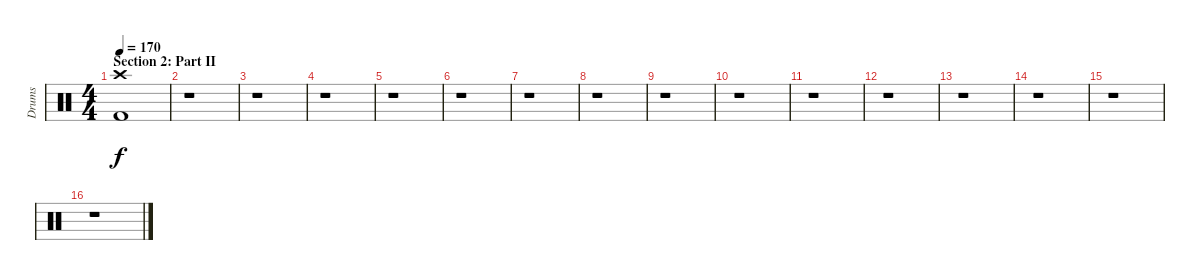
\track ("Drums" "Drums") {instrument percussion}
\staff {score}
\articulation defaults
\ts (4 4)
\section ("" "Section 2: Part II")
\tempo 170
\clef neutral
\ks c
("Crash high (hit)" "Kick (hit) 2").1{dy f} |
r.1 |
r.1 |
r.1 |
r.1 |
r.1 |
r.1 |
r.1 |
r.1 |
r.1 |
r.1 |
r.1 |
r.1 |
r.1 |
r.1 |
r.1
